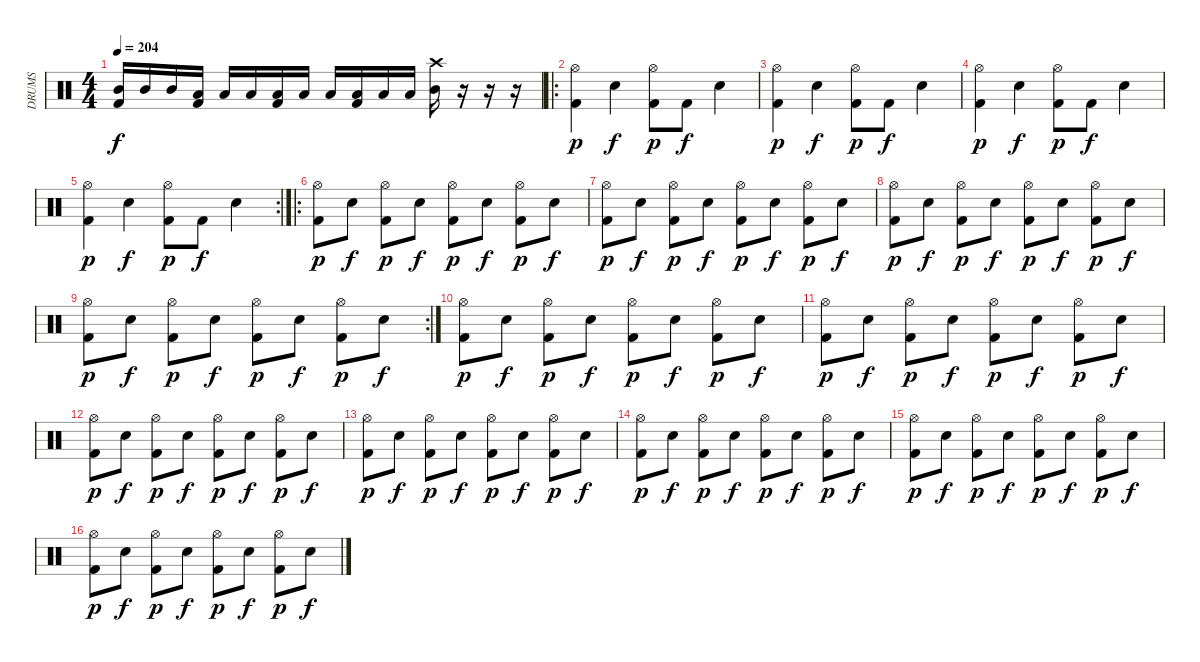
\track ("DRUMS" "DRUMS") {instrument percussion}
\staff {score}
\articulation defaults
\ts (4 4)
\tempo 204
\clef neutral
\ks c
("Kick (hit) 2" "Mid Tom (hit)").16{dy f} "Mid Tom (hit)".16 "Mid Tom (hit)".16 ("Kick (hit) 2" "Low Tom (hit)").16 "Low Tom (hit)".16 "Low Tom (hit)".16 ("Kick (hit) 2" "Low Tom (hit)").16 "Low Tom (hit)".16 "Low Tom (hit)".16 ("Kick (hit) 2" "Low Tom (hit)").16 "Low Tom (hit)".16 "Low Tom (hit)".16 ("Crash high (hit)" "Mid Tom (hit)").16 r.16 r.16 r.16 |
\ro
("Kick (hit) 2" "Hi-Hat (open)").4{dy p} "Electric Snare (hit)".4{dy f} ("Kick (hit) 2" "Hi-Hat (open)").8{dy p} "Kick (hit) 2".8{dy f} "Electric Snare (hit)".4 |
("Kick (hit) 2" "Hi-Hat (open)").4{dy p} "Electric Snare (hit)".4{dy f} ("Kick (hit) 2" "Hi-Hat (open)").8{dy p} "Kick (hit) 2".8{dy f} "Electric Snare (hit)".4 |
("Kick (hit) 2" "Hi-Hat (open)").4{dy p} "Electric Snare (hit)".4{dy f} ("Kick (hit) 2" "Hi-Hat (open)").8{dy p} "Kick (hit) 2".8{dy f} "Electric Snare (hit)".4 |
\rc 2
("Kick (hit) 2" "Hi-Hat (open)").4{dy p} "Electric Snare (hit)".4{dy f} ("Kick (hit) 2" "Hi-Hat (open)").8{dy p} "Kick (hit) 2".8{dy f} "Electric Snare (hit)".4 |
\ro
("Kick (hit) 2" "Hi-Hat (open)").8{dy p} "Electric Snare (hit)".8{dy f} ("Kick (hit) 2" "Hi-Hat (open)").8{dy p} "Electric Snare (hit)".8{dy f} ("Kick (hit) 2" "Hi-Hat (open)").8{dy p} "Electric Snare (hit)".8{dy f} ("Kick (hit) 2" "Hi-Hat (open)").8{dy p} "Electric Snare (hit)".8{dy f} |
("Kick (hit) 2" "Hi-Hat (open)").8{dy p} "Electric Snare (hit)".8{dy f} ("Kick (hit) 2" "Hi-Hat (open)").8{dy p} "Electric Snare (hit)".8{dy f} ("Kick (hit) 2" "Hi-Hat (open)").8{dy p} "Electric Snare (hit)".8{dy f} ("Kick (hit) 2" "Hi-Hat (open)").8{dy p} "Electric Snare (hit)".8{dy f} |
("Kick (hit) 2" "Hi-Hat (open)").8{dy p} "Electric Snare (hit)".8{dy f} ("Kick (hit) 2" "Hi-Hat (open)").8{dy p} "Electric Snare (hit)".8{dy f} ("Kick (hit) 2" "Hi-Hat (open)").8{dy p} "Electric Snare (hit)".8{dy f} ("Kick (hit) 2" "Hi-Hat (open)").8{dy p} "Electric Snare (hit)".8{dy f} |
\rc 2
("Kick (hit) 2" "Hi-Hat (open)").8{dy p} "Electric Snare (hit)".8{dy f} ("Kick (hit) 2" "Hi-Hat (open)").8{dy p} "Electric Snare (hit)".8{dy f} ("Kick (hit) 2" "Hi-Hat (open)").8{dy p} "Electric Snare (hit)".8{dy f} ("Kick (hit) 2" "Hi-Hat (open)").8{dy p} "Electric Snare (hit)".8{dy f} |
("Kick (hit) 2" "Hi-Hat (open)").8{dy p} "Electric Snare (hit)".8{dy f} ("Kick (hit) 2" "Hi-Hat (open)").8{dy p} "Electric Snare (hit)".8{dy f} ("Kick (hit) 2" "Hi-Hat (open)").8{dy p} "Electric Snare (hit)".8{dy f} ("Kick (hit) 2" "Hi-Hat (open)").8{dy p} "Electric Snare (hit)".8{dy f} |
("Kick (hit) 2" "Hi-Hat (open)").8{dy p} "Electric Snare (hit)".8{dy f} ("Kick (hit) 2" "Hi-Hat (open)").8{dy p} "Electric Snare (hit)".8{dy f} ("Kick (hit) 2" "Hi-Hat (open)").8{dy p} "Electric Snare (hit)".8{dy f} ("Kick (hit) 2" "Hi-Hat (open)").8{dy p} "Electric Snare (hit)".8{dy f} |
("Kick (hit) 2" "Hi-Hat (open)").8{dy p} "Electric Snare (hit)".8{dy f} ("Kick (hit) 2" "Hi-Hat (open)").8{dy p} "Electric Snare (hit)".8{dy f} ("Kick (hit) 2" "Hi-Hat (open)").8{dy p} "Electric Snare (hit)".8{dy f} ("Kick (hit) 2" "Hi-Hat (open)").8{dy p} "Electric Snare (hit)".8{dy f} |
("Kick (hit) 2" "Hi-Hat (open)").8{dy p} "Electric Snare (hit)".8{dy f} ("Kick (hit) 2" "Hi-Hat (open)").8{dy p} "Electric Snare (hit)".8{dy f} ("Kick (hit) 2" "Hi-Hat (open)").8{dy p} "Electric Snare (hit)".8{dy f} ("Kick (hit) 2" "Hi-Hat (open)").8{dy p} "Electric Snare (hit)".8{dy f} |
("Kick (hit) 2" "Hi-Hat (open)").8{dy p} "Electric Snare (hit)".8{dy f} ("Kick (hit) 2" "Hi-Hat (open)").8{dy p} "Electric Snare (hit)".8{dy f} ("Kick (hit) 2" "Hi-Hat (open)").8{dy p} "Electric Snare (hit)".8{dy f} ("Kick (hit) 2" "Hi-Hat (open)").8{dy p} "Electric Snare (hit)".8{dy f} |
("Kick (hit) 2" "Hi-Hat (open)").8{dy p} "Electric Snare (hit)".8{dy f} ("Kick (hit) 2" "Hi-Hat (open)").8{dy p} "Electric Snare (hit)".8{dy f} ("Kick (hit) 2" "Hi-Hat (open)").8{dy p} "Electric Snare (hit)".8{dy f} ("Kick (hit) 2" "Hi-Hat (open)").8{dy p} "Electric Snare (hit)".8{dy f} |
("Kick (hit) 2" "Hi-Hat (open)").8{dy p} "Electric Snare (hit)".8{dy f} ("Kick (hit) 2" "Hi-Hat (open)").8{dy p} "Electric Snare (hit)".8{dy f} ("Kick (hit) 2" "Hi-Hat (open)").8{dy p} "Electric Snare (hit)".8{dy f} ("Kick (hit) 2" "Hi-Hat (open)").8{dy p} "Electric Snare (hit)".8{dy f}
